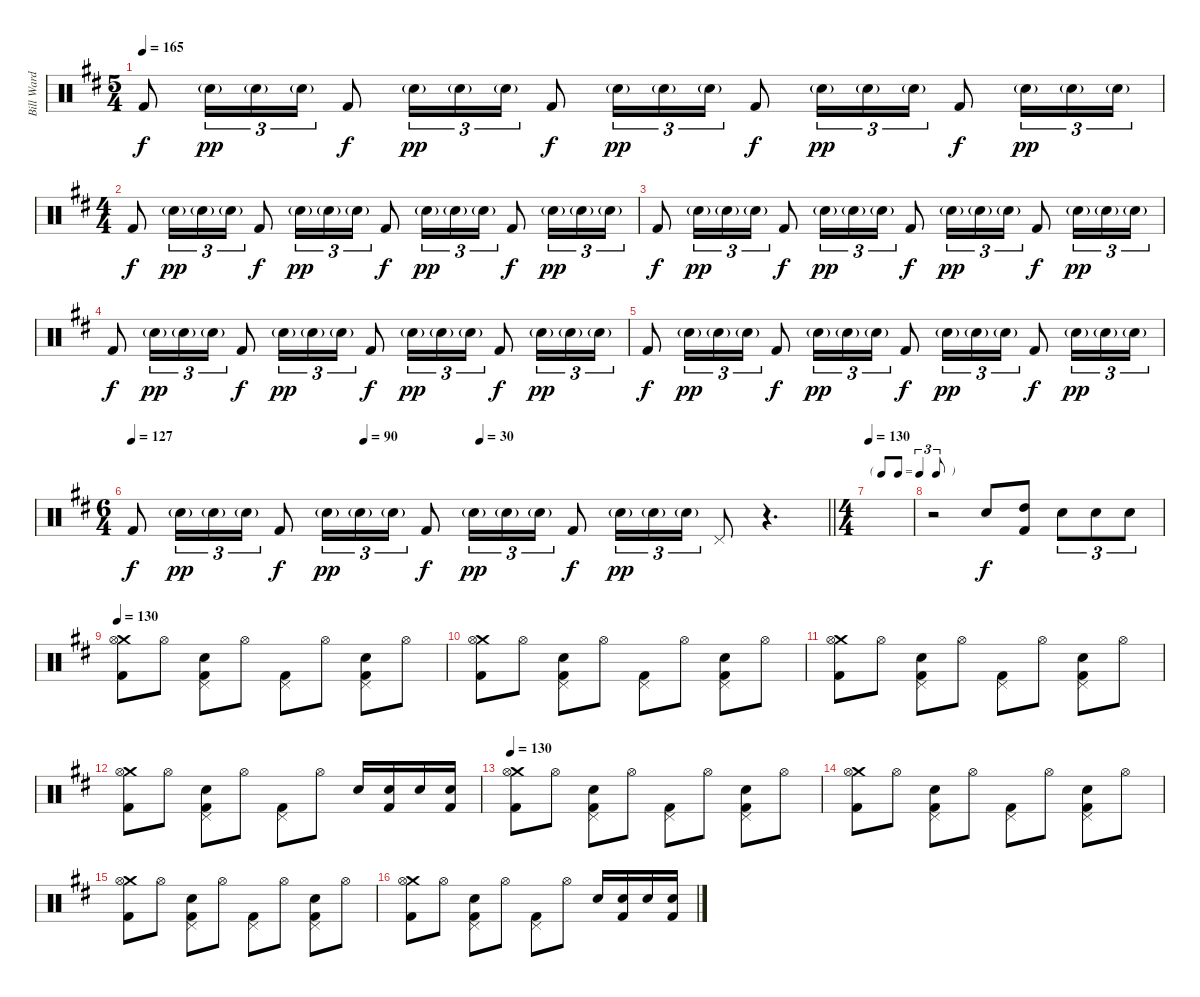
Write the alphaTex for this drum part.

\track ("Bill Ward" "Bill Ward") {instrument percussion}
\staff {score}
\articulation defaults
\ts (5 4)
\tempo 165
\clef neutral
\ks d "Kick (hit) 2".8{dy f} "Electric Snare (hit)"{g}.16{tu (3 2) dy pp} "Electric Snare (hit)"{g}.16{tu (3 2)} "Electric Snare (hit)"{g}.16{tu (3 2)} "Kick (hit) 2".8{dy f} "Electric Snare (hit)"{g}.16{tu (3 2) dy pp} "Electric Snare (hit)"{g}.16{tu (3 2)} "Electric Snare (hit)"{g}.16{tu (3 2)} "Kick (hit) 2".8{dy f} "Electric Snare (hit)"{g}.16{tu (3 2) dy pp} "Electric Snare (hit)"{g}.16{tu (3 2)} "Electric Snare (hit)"{g}.16{tu (3 2)} "Kick (hit) 2".8{dy f} "Electric Snare (hit)"{g}.16{tu (3 2) dy pp} "Electric Snare (hit)"{g}.16{tu (3 2)} "Electric Snare (hit)"{g}.16{tu (3 2)} "Kick (hit) 2".8{dy f} "Electric Snare (hit)"{g}.16{tu (3 2) dy pp} "Electric Snare (hit)"{g}.16{tu (3 2)} "Electric Snare (hit)"{g}.16{tu (3 2)}
|
\ts (4 4)
"Kick (hit) 2".8{dy f} "Electric Snare (hit)"{g}.16{tu (3 2) dy pp} "Electric Snare (hit)"{g}.16{tu (3 2)} "Electric Snare (hit)"{g}.16{tu (3 2)} "Kick (hit) 2".8{dy f} "Electric Snare (hit)"{g}.16{tu (3 2) dy pp} "Electric Snare (hit)"{g}.16{tu (3 2)} "Electric Snare (hit)"{g}.16{tu (3 2)} "Kick (hit) 2".8{dy f} "Electric Snare (hit)"{g}.16{tu (3 2) dy pp} "Electric Snare (hit)"{g}.16{tu (3 2)} "Electric Snare (hit)"{g}.16{tu (3 2)} "Kick (hit) 2".8{dy f} "Electric Snare (hit)"{g}.16{tu (3 2) dy pp} "Electric Snare (hit)"{g}.16{tu (3 2)} "Electric Snare (hit)"{g}.16{tu (3 2)} |
"Kick (hit) 2".8{dy f} "Electric Snare (hit)"{g}.16{tu (3 2) dy pp} "Electric Snare (hit)"{g}.16{tu (3 2)} "Electric Snare (hit)"{g}.16{tu (3 2)} "Kick (hit) 2".8{dy f} "Electric Snare (hit)"{g}.16{tu (3 2) dy pp} "Electric Snare (hit)"{g}.16{tu (3 2)} "Electric Snare (hit)"{g}.16{tu (3 2)} "Kick (hit) 2".8{dy f} "Electric Snare (hit)"{g}.16{tu (3 2) dy pp} "Electric Snare (hit)"{g}.16{tu (3 2)} "Electric Snare (hit)"{g}.16{tu (3 2)} "Kick (hit) 2".8{dy f} "Electric Snare (hit)"{g}.16{tu (3 2) dy pp} "Electric Snare (hit)"{g}.16{tu (3 2)} "Electric Snare (hit)"{g}.16{tu (3 2)} |
"Kick (hit) 2".8{dy f} "Electric Snare (hit)"{g}.16{tu (3 2) dy pp} "Electric Snare (hit)"{g}.16{tu (3 2)} "Electric Snare (hit)"{g}.16{tu (3 2)} "Kick (hit) 2".8{dy f} "Electric Snare (hit)"{g}.16{tu (3 2) dy pp} "Electric Snare (hit)"{g}.16{tu (3 2)} "Electric Snare (hit)"{g}.16{tu (3 2)} "Kick (hit) 2".8{dy f} "Electric Snare (hit)"{g}.16{tu (3 2) dy pp} "Electric Snare (hit)"{g}.16{tu (3 2)} "Electric Snare (hit)"{g}.16{tu (3 2)} "Kick (hit) 2".8{dy f} "Electric Snare (hit)"{g}.16{tu (3 2) dy pp} "Electric Snare (hit)"{g}.16{tu (3 2)} "Electric Snare (hit)"{g}.16{tu (3 2)} |
"Kick (hit) 2".8{dy f} "Electric Snare (hit)"{g}.16{tu (3 2) dy pp} "Electric Snare (hit)"{g}.16{tu (3 2)} "Electric Snare (hit)"{g}.16{tu (3 2)} "Kick (hit) 2".8{dy f} "Electric Snare (hit)"{g}.16{tu (3 2) dy pp} "Electric Snare (hit)"{g}.16{tu (3 2)} "Electric Snare (hit)"{g}.16{tu (3 2)} "Kick (hit) 2".8{dy f} "Electric Snare (hit)"{g}.16{tu (3 2) dy pp} "Electric Snare (hit)"{g}.16{tu (3 2)} "Electric Snare (hit)"{g}.16{tu (3 2)} "Kick (hit) 2".8{dy f} "Electric Snare (hit)"{g}.16{tu (3 2) dy pp} "Electric Snare (hit)"{g}.16{tu (3 2)} "Electric Snare (hit)"{g}.16{tu (3 2)} |
\ts (6 4)
\tempo (30 0.5)
\tempo 127
\tempo (90 0.3333333333333333)
\barLineRight lightlight "Kick (hit) 2".8{dy f} "Electric Snare (hit)"{g}.16{tu (3 2) dy pp} "Electric Snare (hit)"{g}.16{tu (3 2)} "Electric Snare (hit)"{g}.16{tu (3 2)} "Kick (hit) 2".8{dy f} "Electric Snare (hit)"{g}.16{tu (3 2) dy pp} "Electric Snare (hit)"{g}.16{tu (3 2)} "Electric Snare (hit)"{g}.16{tu (3 2)} "Kick (hit) 2".8{dy f} "Electric Snare (hit)"{g}.16{tu (3 2) dy pp} "Electric Snare (hit)"{g}.16{tu (3 2)} "Electric Snare (hit)"{g}.16{tu (3 2)} "Kick (hit) 2".8{dy f} "Electric Snare (hit)"{g}.16{tu (3 2) dy pp} "Electric Snare (hit)"{g}.16{tu (3 2)} "Electric Snare (hit)"{g}.16{tu (3 2)} "Pedal Hi-Hat (hit)".8
r.4{d} |
\ts (4 4)
\tf triplet8th
\tempo 130
|
r.2 "Snare (hit) 2".8{dy f} ("High Tom (hit)" "Kick (hit) 2").8 "Snare (hit) 2".8{tu (3 2)} "Electric Snare (hit)".8{tu (3 2)} "Snare (hit) 2".8{tu (3 2)} |
\tempo 130
("Crash medium (hit)" "Hi-Hat (open)" "Kick (hit) 2").8 "Hi-Hat (open)".8 ("Pedal Hi-Hat (hit)" "Snare (hit) 2" "Kick (hit) 2").8 "Hi-Hat (open)".8 ("Pedal Hi-Hat (hit)" "Kick (hit) 2").8 "Hi-Hat (open)".8 ("Pedal Hi-Hat (hit)" "Snare (hit) 2" "Kick (hit) 2").8 "Hi-Hat (open)".8 |
("Crash medium (hit)" "Hi-Hat (open)" "Kick (hit) 2").8 "Hi-Hat (open)".8 ("Pedal Hi-Hat (hit)" "Snare (hit) 2" "Kick (hit) 2").8 "Hi-Hat (open)".8 ("Pedal Hi-Hat (hit)" "Kick (hit) 2").8 "Hi-Hat (open)".8 ("Pedal Hi-Hat (hit)" "Snare (hit) 2" "Kick (hit) 2").8 "Hi-Hat (open)".8 |
("Crash medium (hit)" "Hi-Hat (open)" "Kick (hit) 2").8 "Hi-Hat (open)".8 ("Pedal Hi-Hat (hit)" "Snare (hit) 2" "Kick (hit) 2").8 "Hi-Hat (open)".8 ("Pedal Hi-Hat (hit)" "Kick (hit) 2").8 "Hi-Hat (open)".8 ("Pedal Hi-Hat (hit)" "Snare (hit) 2" "Kick (hit) 2").8 "Hi-Hat (open)".8 |
("Crash medium (hit)" "Hi-Hat (open)" "Kick (hit) 2").8 "Hi-Hat (open)".8 ("Pedal Hi-Hat (hit)" "Snare (hit) 2" "Kick (hit) 2").8 "Hi-Hat (open)".8 ("Pedal Hi-Hat (hit)" "Kick (hit) 2").8 "Hi-Hat (open)".8 "Snare (hit) 2".16 ("Snare (hit) 2" "Kick (hit) 2").16 "Snare (hit) 2".16 ("Snare (hit) 2" "Kick (hit) 2").16 |
\tempo 130
("Crash medium (hit)" "Hi-Hat (open)" "Kick (hit) 2").8 "Hi-Hat (open)".8 ("Pedal Hi-Hat (hit)" "Snare (hit) 2" "Kick (hit) 2").8 "Hi-Hat (open)".8 ("Pedal Hi-Hat (hit)" "Kick (hit) 2").8 "Hi-Hat (open)".8 ("Pedal Hi-Hat (hit)" "Snare (hit) 2" "Kick (hit) 2").8 "Hi-Hat (open)".8 |
("Crash medium (hit)" "Hi-Hat (open)" "Kick (hit) 2").8 "Hi-Hat (open)".8 ("Pedal Hi-Hat (hit)" "Snare (hit) 2" "Kick (hit) 2").8 "Hi-Hat (open)".8 ("Pedal Hi-Hat (hit)" "Kick (hit) 2").8 "Hi-Hat (open)".8 ("Pedal Hi-Hat (hit)" "Snare (hit) 2" "Kick (hit) 2").8 "Hi-Hat (open)".8 |
("Crash medium (hit)" "Hi-Hat (open)" "Kick (hit) 2").8 "Hi-Hat (open)".8 ("Pedal Hi-Hat (hit)" "Snare (hit) 2" "Kick (hit) 2").8 "Hi-Hat (open)".8 ("Pedal Hi-Hat (hit)" "Kick (hit) 2").8 "Hi-Hat (open)".8 ("Pedal Hi-Hat (hit)" "Snare (hit) 2" "Kick (hit) 2").8 "Hi-Hat (open)".8 |
("Crash medium (hit)" "Hi-Hat (open)" "Kick (hit) 2").8 "Hi-Hat (open)".8 ("Pedal Hi-Hat (hit)" "Snare (hit) 2" "Kick (hit) 2").8 "Hi-Hat (open)".8 ("Pedal Hi-Hat (hit)" "Kick (hit) 2").8 "Hi-Hat (open)".8 "Snare (hit) 2".16 ("Snare (hit) 2" "Kick (hit) 2").16 "Snare (hit) 2".16 ("Snare (hit) 2" "Kick (hit) 2").16
